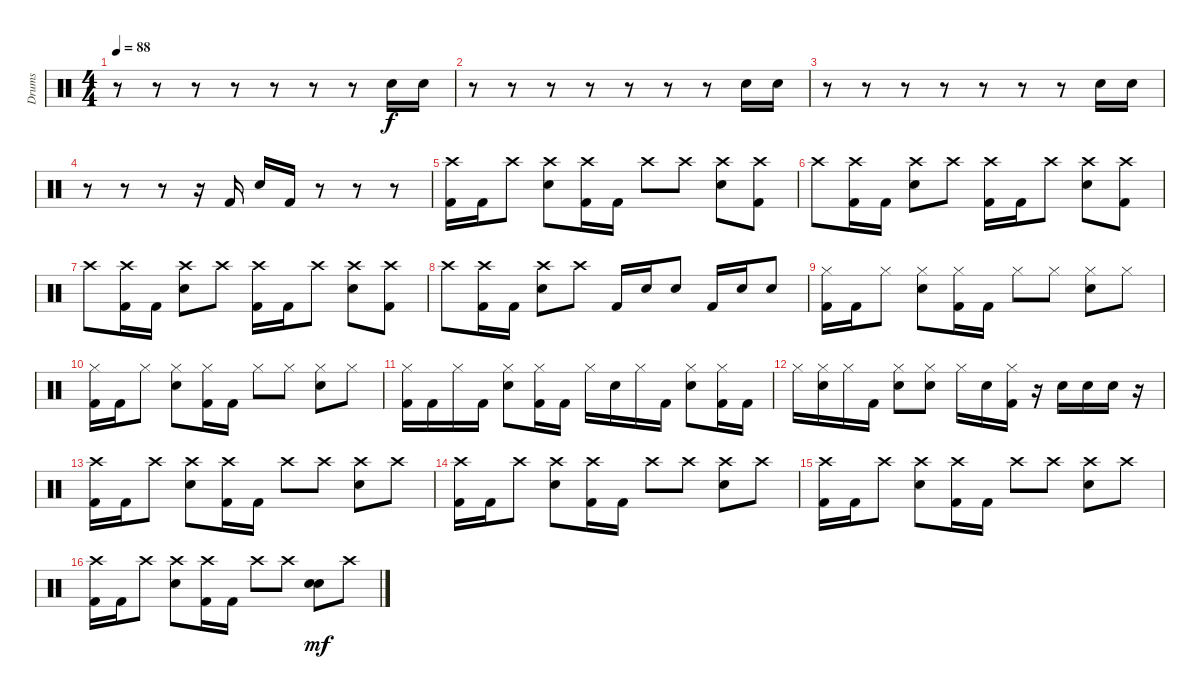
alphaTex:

\track ("Drums" "Drums") {instrument percussion}
\staff {score}
\articulation defaults
\ts (4 4)
\tempo 88
\clef neutral
\ks c
r.8{dy f} r.8 r.8 r.8 r.8 r.8 r.8 "Electric Snare (hit)".16 "Electric Snare (hit)".16 |
r.8 r.8 r.8 r.8 r.8 r.8 r.8 "Electric Snare (hit)".16 "Electric Snare (hit)".16 |
r.8 r.8 r.8 r.8 r.8 r.8 r.8 "Electric Snare (hit)".16 "Electric Snare (hit)".16 |
r.8 r.8 r.8 r.16 "Kick (hit) 2".16 "Electric Snare (hit)".16 "Kick (hit) 2".16 r.8 r.8 r.8 |
("Crash high (hit)" "Kick (hit) 2").16 "Kick (hit) 2".16 "Crash high (hit)".8 ("Crash high (hit)" "Electric Snare (hit)").8 ("Crash high (hit)" "Kick (hit) 2").16 "Kick (hit) 2".16 "Crash high (hit)".8 "Crash high (hit)".8 ("Crash high (hit)" "Electric Snare (hit)").8 ("Crash high (hit)" "Kick (hit) 2").8 |
"Crash high (hit)".8 ("Crash high (hit)" "Kick (hit) 2").16 "Kick (hit) 2".16 ("Crash high (hit)" "Electric Snare (hit)").8 "Crash high (hit)".8 ("Crash high (hit)" "Kick (hit) 2").16 "Kick (hit) 2".16 "Crash high (hit)".8 ("Crash high (hit)" "Electric Snare (hit)").8 ("Crash high (hit)" "Kick (hit) 2").8 |
"Crash high (hit)".8 ("Crash high (hit)" "Kick (hit) 2").16 "Kick (hit) 2".16 ("Crash high (hit)" "Electric Snare (hit)").8 "Crash high (hit)".8 ("Crash high (hit)" "Kick (hit) 2").16 "Kick (hit) 2".16 "Crash high (hit)".8 ("Crash high (hit)" "Electric Snare (hit)").8 ("Crash high (hit)" "Kick (hit) 2").8 |
"Crash high (hit)".8 ("Crash high (hit)" "Kick (hit) 2").16 "Kick (hit) 2".16 ("Crash high (hit)" "Electric Snare (hit)").8 "Crash high (hit)".8 "Kick (hit) 2".16 "Electric Snare (hit)".16 "Electric Snare (hit)".8 "Kick (hit) 2".16 "Electric Snare (hit)".16 "Electric Snare (hit)".8 |
("Hi-Hat (closed)" "Kick (hit) 2").16 "Kick (hit) 2".16 "Hi-Hat (closed)".8 ("Hi-Hat (closed)" "Electric Snare (hit)").8 ("Hi-Hat (closed)" "Kick (hit) 2").16 "Kick (hit) 2".16 "Hi-Hat (closed)".8 "Hi-Hat (closed)".8 ("Hi-Hat (closed)" "Electric Snare (hit)").8 "Hi-Hat (closed)".8 |
("Hi-Hat (closed)" "Kick (hit) 2").16 "Kick (hit) 2".16 "Hi-Hat (closed)".8 ("Hi-Hat (closed)" "Electric Snare (hit)").8 ("Hi-Hat (closed)" "Kick (hit) 2").16 "Kick (hit) 2".16 "Hi-Hat (closed)".8 "Hi-Hat (closed)".8 ("Hi-Hat (closed)" "Electric Snare (hit)").8 "Hi-Hat (closed)".8 |
("Hi-Hat (closed)" "Kick (hit) 2").16 "Kick (hit) 2".16 "Hi-Hat (closed)".16 "Kick (hit) 2".16 ("Hi-Hat (closed)" "Electric Snare (hit)").8 ("Hi-Hat (closed)" "Kick (hit) 2").16 "Kick (hit) 2".16 "Hi-Hat (closed)".16 "Electric Snare (hit)".16 "Hi-Hat (closed)".16 "Kick (hit) 2".16 ("Hi-Hat (closed)" "Electric Snare (hit)").8 ("Hi-Hat (closed)" "Kick (hit) 2").16 "Kick (hit) 2".16 |
"Hi-Hat (closed)".16 ("Hi-Hat (closed)" "Electric Snare (hit)").16 "Hi-Hat (closed)".16 "Kick (hit) 2".16 ("Hi-Hat (closed)" "Electric Snare (hit)").8 ("Hi-Hat (closed)" "Electric Snare (hit)").8 "Hi-Hat (closed)".16 "Electric Snare (hit)".16 ("Hi-Hat (closed)" "Kick (hit) 2").16 r.16 "Electric Snare (hit)".16 "Electric Snare (hit)".16 "Electric Snare (hit)".16 r.16 |
("Crash high (hit)" "Kick (hit) 2").16 "Kick (hit) 2".16 "Crash high (hit)".8 ("Crash high (hit)" "Electric Snare (hit)").8 ("Crash high (hit)" "Kick (hit) 2").16 "Kick (hit) 2".16 "Crash high (hit)".8 "Crash high (hit)".8 ("Crash high (hit)" "Electric Snare (hit)").8 "Crash high (hit)".8 |
("Crash high (hit)" "Kick (hit) 2").16 "Kick (hit) 2".16 "Crash high (hit)".8 ("Crash high (hit)" "Electric Snare (hit)").8 ("Crash high (hit)" "Kick (hit) 2").16 "Kick (hit) 2".16 "Crash high (hit)".8 "Crash high (hit)".8 ("Crash high (hit)" "Electric Snare (hit)").8 "Crash high (hit)".8 |
("Crash high (hit)" "Kick (hit) 2").16 "Kick (hit) 2".16 "Crash high (hit)".8 ("Crash high (hit)" "Electric Snare (hit)").8 ("Crash high (hit)" "Kick (hit) 2").16 "Kick (hit) 2".16 "Crash high (hit)".8 "Crash high (hit)".8 ("Crash high (hit)" "Electric Snare (hit)").8 "Crash high (hit)".8 |
("Crash high (hit)" "Kick (hit) 2").16 "Kick (hit) 2".16 "Crash high (hit)".8 ("Crash high (hit)" "Electric Snare (hit)").8 ("Crash high (hit)" "Kick (hit) 2").16 "Kick (hit) 2".16 "Crash high (hit)".8 "Crash high (hit)".8 ("Electric Snare (hit)" "Electric Snare (hit)").8{dy mf} "Crash high (hit)".8
